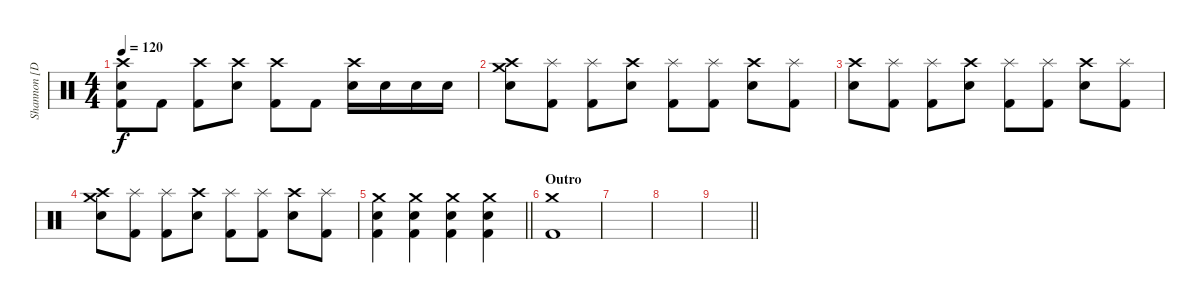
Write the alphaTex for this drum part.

\track ("Shannon [Drums]" "Shannon [D") {instrument percussion}
\staff {score}
\articulation defaults
\ts (4 4)
\tempo 120
\clef neutral
\ks c
("Crash high (hit)" "Electric Snare (hit)" "Kick (hit) 2").8{dy f} "Kick (hit) 2".8 ("Crash high (hit)" "Kick (hit) 2").8 ("Crash high (hit)" "Electric Snare (hit)").8 ("Crash high (hit)" "Kick (hit) 2").8 "Kick (hit) 2".8 ("Crash high (hit)" "Electric Snare (hit)").16 "Electric Snare (hit)".16 "Electric Snare (hit)".16 "Electric Snare (hit)".16 |
("Crash high (hit)" "Crash medium (hit)" "Electric Snare (hit)").8 ("Splash (hit)" "Kick (hit) 2").8 ("Splash (hit)" "Kick (hit) 2").8 ("Crash high (hit)" "Electric Snare (hit)").8 ("Splash (hit)" "Kick (hit) 2").8 ("Splash (hit)" "Kick (hit) 2").8 ("Crash high (hit)" "Electric Snare (hit)").8 ("Splash (hit)" "Kick (hit) 2").8 |
("Crash high (hit)" "Electric Snare (hit)").8 ("Splash (hit)" "Kick (hit) 2").8 ("Splash (hit)" "Kick (hit) 2").8 ("Crash high (hit)" "Electric Snare (hit)").8 ("Splash (hit)" "Kick (hit) 2").8 ("Splash (hit)" "Kick (hit) 2").8 ("Crash high (hit)" "Electric Snare (hit)").8 ("Splash (hit)" "Kick (hit) 2").8 |
("Crash high (hit)" "Crash medium (hit)" "Electric Snare (hit)").8 ("Splash (hit)" "Kick (hit) 2").8 ("Splash (hit)" "Kick (hit) 2").8 ("Crash high (hit)" "Electric Snare (hit)").8 ("Splash (hit)" "Kick (hit) 2").8 ("Splash (hit)" "Kick (hit) 2").8 ("Crash high (hit)" "Electric Snare (hit)").8 ("Splash (hit)" "Kick (hit) 2").8 |
\barLineRight lightlight
("Crash medium (hit)" "Electric Snare (hit)" "Kick (hit) 2").4 ("Crash medium (hit)" "Electric Snare (hit)" "Kick (hit) 2").4 ("Crash medium (hit)" "Electric Snare (hit)" "Kick (hit) 2").4 ("Crash medium (hit)" "Electric Snare (hit)" "Kick (hit) 2").4 |
\section ("" "Outro")
("Crash medium (hit)" "Kick (hit) 2").1 |
|
|
\barLineRight lightlight
